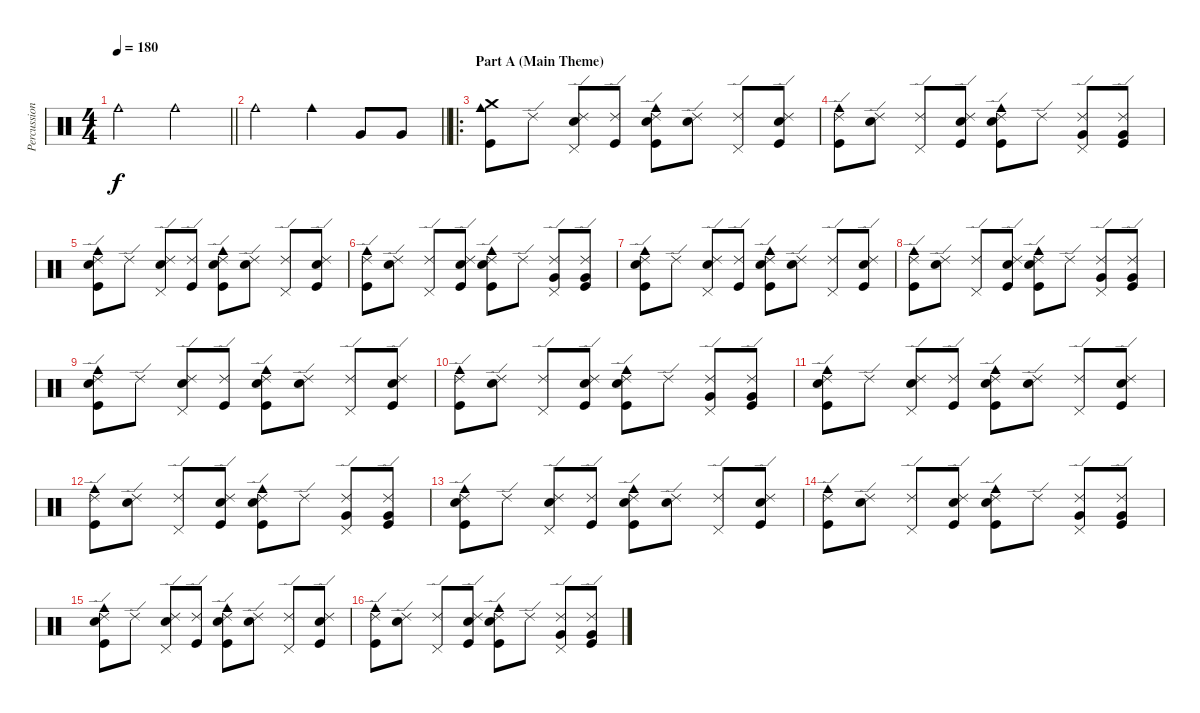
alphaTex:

\track ("Percussion" "Percussion") {instrument percussion}
\staff {score}
\articulation defaults
\ts (4 4)
\tempo 180
\clef neutral
\barLineRight lightlight
\ks c "Cowbell medium (hit)".2{dy f} "Cowbell medium (hit)".2
|
\barLineRight lightlight "Cowbell medium (hit)".2 "Cowbell medium (hit)".4 "Very Low Tom (hit)".8 "Very Low Tom (hit)".8
|
\ro
\section ("" "Part A (Main Theme)")
("Crash medium (hit)" "Cowbell medium (hit)" "Kick (hit)").8 "Ride (edge) 2".8 ("Ride (edge) 2" "Pedal Hi-Hat (hit)" "Electric Snare (hit)").8 ("Ride (edge) 2" "Kick (hit)").8 ("Ride (edge) 2" "Cowbell medium (hit)" "Electric Snare (hit)" "Kick (hit)").8 ("Ride (edge) 2" "Electric Snare (hit)").8 ("Ride (edge) 2" "Pedal Hi-Hat (hit)").8 ("Ride (edge) 2" "Electric Snare (hit)" "Kick (hit)").8 |
("Ride (edge) 2" "Cowbell medium (hit)" "Kick (hit)").8 ("Ride (edge) 2" "Electric Snare (hit)").8 ("Ride (edge) 2" "Pedal Hi-Hat (hit)").8 ("Ride (edge) 2" "Electric Snare (hit)" "Kick (hit)").8 ("Ride (edge) 2" "Cowbell medium (hit)" "Electric Snare (hit)" "Kick (hit)").8 "Ride (edge) 2".8 ("Ride (edge) 2" "Pedal Hi-Hat (hit)" "Very Low Tom (hit)").8 ("Ride (edge) 2" "Very Low Tom (hit)" "Kick (hit)").8 |
("Ride (edge) 2" "Cowbell medium (hit)" "Electric Snare (hit)" "Kick (hit)").8 "Ride (edge) 2".8 ("Ride (edge) 2" "Pedal Hi-Hat (hit)" "Electric Snare (hit)").8 ("Ride (edge) 2" "Kick (hit)").8 ("Ride (edge) 2" "Cowbell medium (hit)" "Electric Snare (hit)" "Kick (hit)").8 ("Ride (edge) 2" "Electric Snare (hit)").8 ("Ride (edge) 2" "Pedal Hi-Hat (hit)").8 ("Ride (edge) 2" "Electric Snare (hit)" "Kick (hit)").8 |
("Ride (edge) 2" "Cowbell medium (hit)" "Kick (hit)").8 ("Ride (edge) 2" "Electric Snare (hit)").8 ("Ride (edge) 2" "Pedal Hi-Hat (hit)").8 ("Ride (edge) 2" "Electric Snare (hit)" "Kick (hit)").8 ("Ride (edge) 2" "Cowbell medium (hit)" "Electric Snare (hit)" "Kick (hit)").8 "Ride (edge) 2".8 ("Ride (edge) 2" "Pedal Hi-Hat (hit)" "Very Low Tom (hit)").8 ("Ride (edge) 2" "Very Low Tom (hit)" "Kick (hit)").8 |
("Ride (edge) 2" "Cowbell medium (hit)" "Electric Snare (hit)" "Kick (hit)").8 "Ride (edge) 2".8 ("Ride (edge) 2" "Pedal Hi-Hat (hit)" "Electric Snare (hit)").8 ("Ride (edge) 2" "Kick (hit)").8 ("Ride (edge) 2" "Cowbell medium (hit)" "Electric Snare (hit)" "Kick (hit)").8 ("Ride (edge) 2" "Electric Snare (hit)").8 ("Ride (edge) 2" "Pedal Hi-Hat (hit)").8 ("Ride (edge) 2" "Electric Snare (hit)" "Kick (hit)").8 |
("Ride (edge) 2" "Cowbell medium (hit)" "Kick (hit)").8 ("Ride (edge) 2" "Electric Snare (hit)").8 ("Ride (edge) 2" "Pedal Hi-Hat (hit)").8 ("Ride (edge) 2" "Electric Snare (hit)" "Kick (hit)").8 ("Ride (edge) 2" "Cowbell medium (hit)" "Electric Snare (hit)" "Kick (hit)").8 "Ride (edge) 2".8 ("Ride (edge) 2" "Pedal Hi-Hat (hit)" "Very Low Tom (hit)").8 ("Ride (edge) 2" "Very Low Tom (hit)" "Kick (hit)").8 |
("Ride (edge) 2" "Cowbell medium (hit)" "Electric Snare (hit)" "Kick (hit)").8 "Ride (edge) 2".8 ("Ride (edge) 2" "Pedal Hi-Hat (hit)" "Electric Snare (hit)").8 ("Ride (edge) 2" "Kick (hit)").8 ("Ride (edge) 2" "Cowbell medium (hit)" "Electric Snare (hit)" "Kick (hit)").8 ("Ride (edge) 2" "Electric Snare (hit)").8 ("Ride (edge) 2" "Pedal Hi-Hat (hit)").8 ("Ride (edge) 2" "Electric Snare (hit)" "Kick (hit)").8 |
("Ride (edge) 2" "Cowbell medium (hit)" "Kick (hit)").8 ("Ride (edge) 2" "Electric Snare (hit)").8 ("Ride (edge) 2" "Pedal Hi-Hat (hit)").8 ("Ride (edge) 2" "Electric Snare (hit)" "Kick (hit)").8 ("Ride (edge) 2" "Cowbell medium (hit)" "Electric Snare (hit)" "Kick (hit)").8 "Ride (edge) 2".8 ("Ride (edge) 2" "Pedal Hi-Hat (hit)" "Very Low Tom (hit)").8 ("Ride (edge) 2" "Very Low Tom (hit)" "Kick (hit)").8 |
("Ride (edge) 2" "Cowbell medium (hit)" "Electric Snare (hit)" "Kick (hit)").8 "Ride (edge) 2".8 ("Ride (edge) 2" "Pedal Hi-Hat (hit)" "Electric Snare (hit)").8 ("Ride (edge) 2" "Kick (hit)").8 ("Ride (edge) 2" "Cowbell medium (hit)" "Electric Snare (hit)" "Kick (hit)").8 ("Ride (edge) 2" "Electric Snare (hit)").8 ("Ride (edge) 2" "Pedal Hi-Hat (hit)").8 ("Ride (edge) 2" "Electric Snare (hit)" "Kick (hit)").8 |
("Ride (edge) 2" "Cowbell medium (hit)" "Kick (hit)").8 ("Ride (edge) 2" "Electric Snare (hit)").8 ("Ride (edge) 2" "Pedal Hi-Hat (hit)").8 ("Ride (edge) 2" "Electric Snare (hit)" "Kick (hit)").8 ("Ride (edge) 2" "Cowbell medium (hit)" "Electric Snare (hit)" "Kick (hit)").8 "Ride (edge) 2".8 ("Ride (edge) 2" "Pedal Hi-Hat (hit)" "Very Low Tom (hit)").8 ("Ride (edge) 2" "Very Low Tom (hit)" "Kick (hit)").8 |
("Ride (edge) 2" "Cowbell medium (hit)" "Electric Snare (hit)" "Kick (hit)").8 "Ride (edge) 2".8 ("Ride (edge) 2" "Pedal Hi-Hat (hit)" "Electric Snare (hit)").8 ("Ride (edge) 2" "Kick (hit)").8 ("Ride (edge) 2" "Cowbell medium (hit)" "Electric Snare (hit)" "Kick (hit)").8 ("Ride (edge) 2" "Electric Snare (hit)").8 ("Ride (edge) 2" "Pedal Hi-Hat (hit)").8 ("Ride (edge) 2" "Electric Snare (hit)" "Kick (hit)").8 |
("Ride (edge) 2" "Cowbell medium (hit)" "Kick (hit)").8 ("Ride (edge) 2" "Electric Snare (hit)").8 ("Ride (edge) 2" "Pedal Hi-Hat (hit)").8 ("Ride (edge) 2" "Electric Snare (hit)" "Kick (hit)").8 ("Ride (edge) 2" "Cowbell medium (hit)" "Electric Snare (hit)" "Kick (hit)").8 "Ride (edge) 2".8 ("Ride (edge) 2" "Pedal Hi-Hat (hit)" "Very Low Tom (hit)").8 ("Ride (edge) 2" "Very Low Tom (hit)" "Kick (hit)").8 |
("Ride (edge) 2" "Cowbell medium (hit)" "Electric Snare (hit)" "Kick (hit)").8 "Ride (edge) 2".8 ("Ride (edge) 2" "Pedal Hi-Hat (hit)" "Electric Snare (hit)").8 ("Ride (edge) 2" "Kick (hit)").8 ("Ride (edge) 2" "Cowbell medium (hit)" "Electric Snare (hit)" "Kick (hit)").8 ("Ride (edge) 2" "Electric Snare (hit)").8 ("Ride (edge) 2" "Pedal Hi-Hat (hit)").8 ("Ride (edge) 2" "Electric Snare (hit)" "Kick (hit)").8 |
("Ride (edge) 2" "Cowbell medium (hit)" "Kick (hit)").8 ("Ride (edge) 2" "Electric Snare (hit)").8 ("Ride (edge) 2" "Pedal Hi-Hat (hit)").8 ("Ride (edge) 2" "Electric Snare (hit)" "Kick (hit)").8 ("Ride (edge) 2" "Cowbell medium (hit)" "Electric Snare (hit)" "Kick (hit)").8 "Ride (edge) 2".8 ("Ride (edge) 2" "Pedal Hi-Hat (hit)" "Very Low Tom (hit)").8 ("Ride (edge) 2" "Very Low Tom (hit)" "Kick (hit)").8
